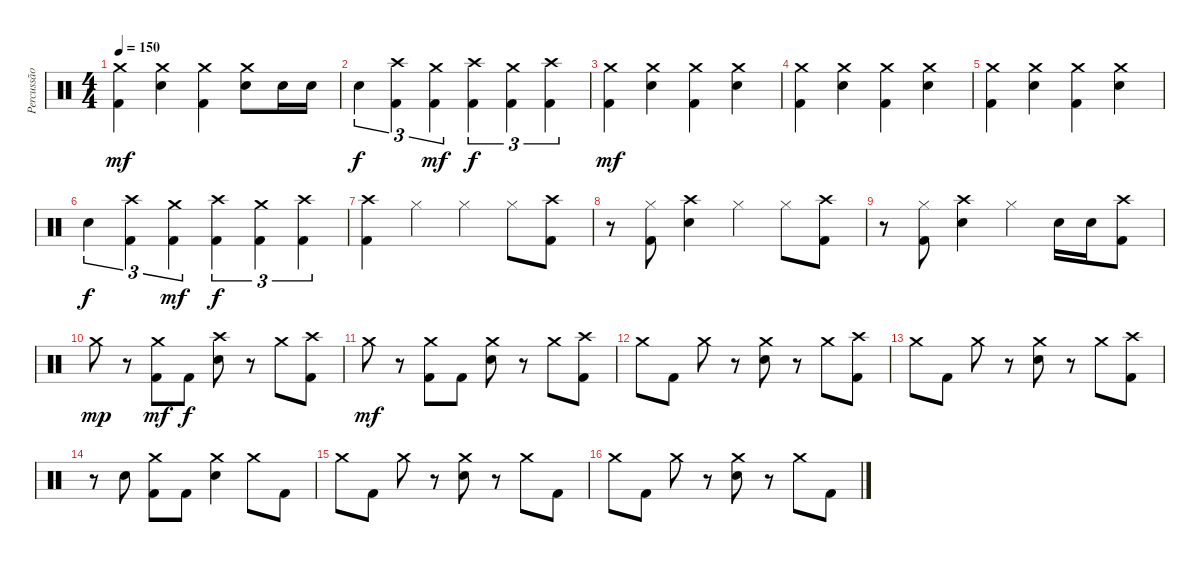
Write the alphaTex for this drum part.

\track ("Percussão" "Percussão") {instrument percussion}
\staff {score}
\articulation defaults
\ts (4 4)
\tempo 150
\clef neutral
\ks c
("Crash medium (hit)" "Kick (hit) 2").4{dy mf} ("Crash medium (hit)" "Snare (hit) 2").4 ("Crash medium (hit)" "Kick (hit) 2").4 ("Crash medium (hit)" "Snare (hit) 2").8 "Snare (hit) 2".16 "Snare (hit) 2".16 |
"Electric Snare (hit)".4{tu (3 2) dy f} ("Crash high (hit)" "Kick (hit) 2").4{tu (3 2)} ("Crash medium (hit)" "Kick (hit) 2").4{tu (3 2) dy mf} ("Crash high (hit)" "Kick (hit) 2").4{tu (3 2) dy f} ("Crash medium (hit)" "Kick (hit) 2").4{tu (3 2)} ("Crash high (hit)" "Kick (hit) 2").4{tu (3 2)} |
("Crash medium (hit)" "Kick (hit) 2").4{dy mf} ("Crash medium (hit)" "Snare (hit) 2").4 ("Crash medium (hit)" "Kick (hit) 2").4 ("Crash medium (hit)" "Snare (hit) 2").4 |
("Crash medium (hit)" "Kick (hit) 2").4 ("Crash medium (hit)" "Snare (hit) 2").4 ("Crash medium (hit)" "Kick (hit) 2").4 ("Crash medium (hit)" "Snare (hit) 2").4 |
("Crash medium (hit)" "Kick (hit) 2").4 ("Crash medium (hit)" "Snare (hit) 2").4 ("Crash medium (hit)" "Kick (hit) 2").4 ("Crash medium (hit)" "Snare (hit) 2").4 |
"Electric Snare (hit)".4{tu (3 2) dy f} ("Crash high (hit)" "Kick (hit) 2").4{tu (3 2)} ("Crash medium (hit)" "Kick (hit) 2").4{tu (3 2) dy mf} ("Crash high (hit)" "Kick (hit) 2").4{tu (3 2) dy f} ("Crash medium (hit)" "Kick (hit) 2").4{tu (3 2)} ("Crash high (hit)" "Kick (hit) 2").4{tu (3 2)} |
("Crash high (hit)" "Kick (hit) 2").4 "Hi-Hat (closed)".4 "Hi-Hat (closed)".4 "Hi-Hat (closed)".8 ("Crash high (hit)" "Kick (hit) 2").8 |
r.8 ("Hi-Hat (closed)" "Kick (hit) 2").8 ("Crash high (hit)" "Snare (hit) 2").4 "Hi-Hat (closed)".4 "Hi-Hat (closed)".8 ("Crash high (hit)" "Kick (hit) 2").8 |
r.8 ("Hi-Hat (closed)" "Kick (hit) 2").8 ("Crash high (hit)" "Snare (hit) 2").4 "Hi-Hat (closed)".4 "Snare (hit) 2".16 "Snare (hit) 2".16 ("Crash high (hit)" "Kick (hit) 2").8 |
"Crash medium (hit)".8{dy mp} r.8 ("Crash medium (hit)" "Kick (hit) 2").8{dy mf} "Kick (hit) 2".8{dy f} ("Crash high (hit)" "Snare (hit) 2").8 r.8 "Crash medium (hit)".8 ("Crash high (hit)" "Kick (hit) 2").8 |
"Crash medium (hit)".8{dy mf} r.8 ("Crash medium (hit)" "Kick (hit) 2").8 "Kick (hit) 2".8 ("Crash medium (hit)" "Snare (hit) 2").8 r.8 "Crash medium (hit)".8 ("Crash high (hit)" "Kick (hit) 2").8 |
"Crash medium (hit)".8 "Kick (hit) 2".8 "Crash medium (hit)".8 r.8 ("Crash medium (hit)" "Snare (hit) 2").8 r.8 "Crash medium (hit)".8 ("Crash high (hit)" "Kick (hit) 2").8 |
"Crash medium (hit)".8 "Kick (hit) 2".8 "Crash medium (hit)".8 r.8 ("Crash medium (hit)" "Snare (hit) 2").8 r.8 "Crash medium (hit)".8 ("Crash high (hit)" "Kick (hit) 2").8 |
r.8 "Snare (hit) 2".8 ("Crash medium (hit)" "Kick (hit) 2").8 "Kick (hit) 2".8 ("Crash medium (hit)" "Snare (hit) 2").4 "Crash medium (hit)".8 "Kick (hit) 2".8 |
"Crash medium (hit)".8 "Kick (hit) 2".8 "Crash medium (hit)".8 r.8 ("Crash medium (hit)" "Snare (hit) 2").8 r.8 "Crash medium (hit)".8 "Kick (hit) 2".8 |
"Crash medium (hit)".8 "Kick (hit) 2".8 "Crash medium (hit)".8 r.8 ("Crash medium (hit)" "Snare (hit) 2").8 r.8 "Crash medium (hit)".8 "Kick (hit) 2".8
